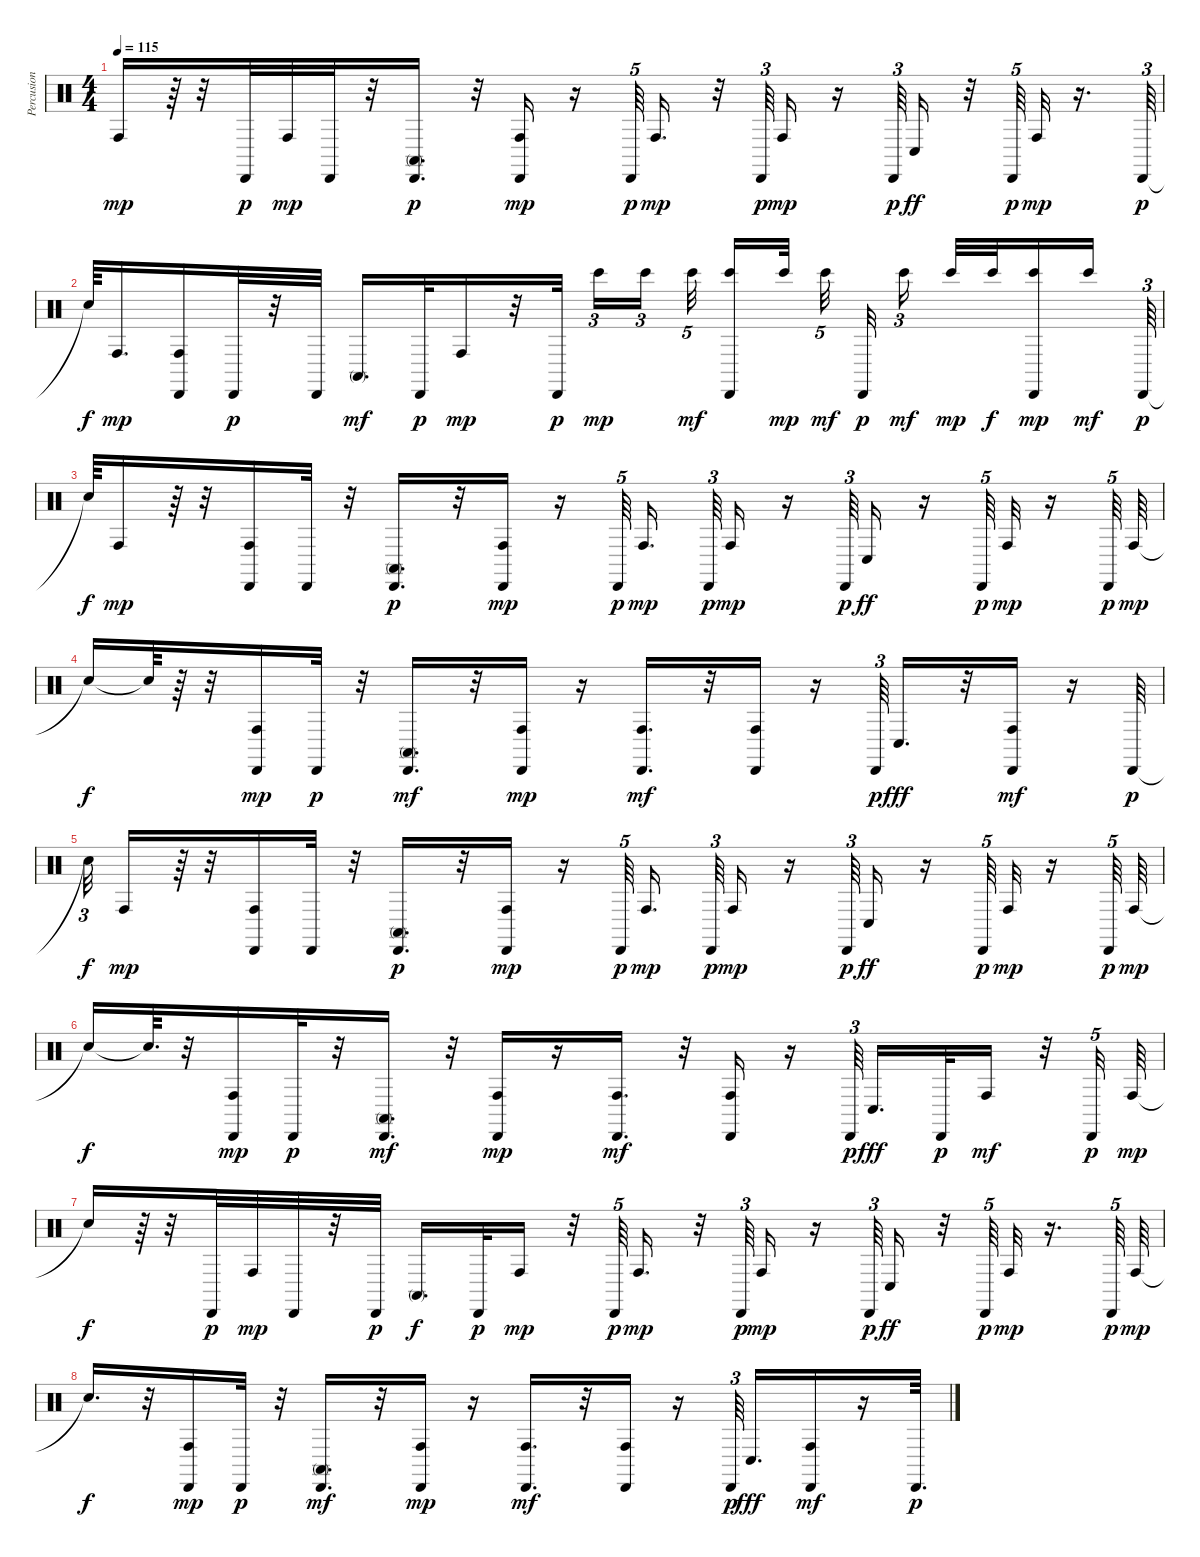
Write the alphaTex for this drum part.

\track ("Percusion" "Percusion") {instrument percussion}
\staff {score}
\articulation defaults
\ts (4 4)
\tempo 115
\clef neutral
\ks c "Conga high (hit)".16{dy mp}
r.64 r.32 "Cabasa (hit)".32{dy p} "Conga high (hit)".32{dy mp} "Cabasa (hit)".32 r.32 ("Cabasa (hit)" "Conga high (mute)").16{d dy p} r.32 ("Cabasa (hit)" "Conga high (hit)").16{dy mp} r.16 "Cabasa (hit)".64{tu (5 4) dy p} "Conga high (hit)".16{d dy mp} r.32 "Cabasa (hit)".64{tu (3 2) dy p} "Conga high (hit)".16{dy mp} r.16 "Cabasa (hit)".64{tu (3 2) dy p} "Conga low (hit)".16{dy ff} r.32 "Cabasa (hit)".64{tu (5 4) dy p} "Conga high (hit)".32{dy mp} r.16{d} "Cabasa (hit)".64{tu (3 2) dy p} |
"Snare (hit)"{t}.64{dy f} "Conga high (hit)".16{d dy mp} ("Cabasa (hit)" "Conga high (hit)").16 "Cabasa (hit)".32{dy p} r.32 "Cabasa (hit)".32 "Conga high (mute)".16{d dy mf} "Cabasa (hit)".32{dy p} "Conga high (hit)".16{dy mp} r.32 "Cabasa (hit)".32{dy p} "Bongo High (hit)".16{tu (3 2) dy mp} "Bongo High (hit)".16{tu (3 2)} "Bongo High (hit)".32{tu (5 4) dy mf beam splitsecondary} ("Cabasa (hit)" "Bongo High (hit)").16 "Bongo High (hit)".32{dy mp beam splitsecondary} "Bongo High (hit)".32{tu (5 4) dy mf} "Cabasa (hit)".32{dy p} "Bongo High (hit)".16{tu (3 2) dy mf beam splitsecondary} "Bongo High (hit)".32{dy mp} "Bongo High (hit)".32{dy f} ("Cabasa (hit)" "Bongo High (hit)").16{dy mp} "Bongo High (hit)".16{dy mf} "Cabasa (hit)".64{tu (3 2) dy p} |
"Snare (hit)"{t}.64{dy f} "Conga high (hit)".16{dy mp} r.64 r.32 ("Cabasa (hit)" "Conga high (hit)").16 "Cabasa (hit)".32 r.32 ("Cabasa (hit)" "Conga high (mute)").16{d dy p} r.32 ("Cabasa (hit)" "Conga high (hit)").16{dy mp} r.16 "Cabasa (hit)".64{tu (5 4) dy p beam splitsecondary} "Conga high (hit)".16{d dy mp beam splitsecondary} "Cabasa (hit)".64{tu (3 2) dy p} "Conga high (hit)".16{dy mp} r.16 "Cabasa (hit)".64{tu (3 2) dy p} "Conga low (hit)".16{dy ff} r.16 "Cabasa (hit)".64{tu (5 4) dy p} "Conga high (hit)".32{dy mp} r.16 "Cabasa (hit)".64{tu (5 4) dy p} "Conga high (hit)".64{dy mp} |
"Snare (hit)"{t}.16{dy f} "Snare (hit)"{t}.64 r.64 r.32 ("Cabasa (hit)" "Conga high (hit)").16{dy mp} "Cabasa (hit)".32{dy p} r.32 ("Cabasa (hit)" "Conga high (mute)").16{d dy mf} r.32 ("Cabasa (hit)" "Conga high (hit)").16{dy mp} r.16 ("Cabasa (hit)" "Conga high (hit)").16{d dy mf} r.32 ("Cabasa (hit)" "Conga high (hit)").16 r.16 "Cabasa (hit)".64{tu (3 2) dy p} "Conga low (hit)".16{d dy fff} r.32 ("Cabasa (hit)" "Conga high (hit)").16{dy mf} r.16 "Cabasa (hit)".64{dy p} |
"Snare (hit)"{t}.32{tu (3 2) dy f} "Conga high (hit)".16{dy mp} r.64 r.32 ("Cabasa (hit)" "Conga high (hit)").16 "Cabasa (hit)".32 r.32 ("Cabasa (hit)" "Conga high (mute)").16{d dy p} r.32 ("Cabasa (hit)" "Conga high (hit)").16{dy mp} r.16 "Cabasa (hit)".64{tu (5 4) dy p beam splitsecondary} "Conga high (hit)".16{d dy mp beam splitsecondary} "Cabasa (hit)".64{tu (3 2) dy p} "Conga high (hit)".16{dy mp} r.16 "Cabasa (hit)".64{tu (3 2) dy p} "Conga low (hit)".16{dy ff} r.16 "Cabasa (hit)".64{tu (5 4) dy p} "Conga high (hit)".32{dy mp} r.16 "Cabasa (hit)".64{tu (5 4) dy p} "Conga high (hit)".64{dy mp} |
"Snare (hit)"{t}.16{dy f} "Snare (hit)"{t}.64{d} r.32 ("Cabasa (hit)" "Conga high (hit)").16{dy mp} "Cabasa (hit)".32{dy p} r.32 ("Cabasa (hit)" "Conga high (mute)").16{d dy mf} r.32 ("Cabasa (hit)" "Conga high (hit)").16{dy mp} r.16 ("Cabasa (hit)" "Conga high (hit)").16{d dy mf} r.32 ("Cabasa (hit)" "Conga high (hit)").16 r.16 "Cabasa (hit)".64{tu (3 2) dy p} "Conga low (hit)".16{d dy fff} "Cabasa (hit)".32{dy p} "Conga high (hit)".16{dy mf} r.32 "Cabasa (hit)".32{tu (5 4) dy p} "Conga high (hit)".64{dy mp} |
"Snare (hit)"{t}.16{dy f} r.64 r.32 "Cabasa (hit)".32{dy p} "Conga high (hit)".32{dy mp} "Cabasa (hit)".32 r.32 "Cabasa (hit)".32{dy p} "Conga high (mute)".16{d dy f} "Cabasa (hit)".32{dy p} "Conga high (hit)".16{dy mp} r.32 "Cabasa (hit)".64{tu (5 4) dy p} "Conga high (hit)".16{d dy mp} r.32 "Cabasa (hit)".64{tu (3 2) dy p} "Conga high (hit)".16{dy mp} r.16 "Cabasa (hit)".64{tu (3 2) dy p} "Conga low (hit)".16{dy ff} r.32 "Cabasa (hit)".64{tu (5 4) dy p} "Conga high (hit)".32{dy mp} r.16{d} "Cabasa (hit)".64{tu (5 4) dy p} "Conga high (hit)".64{dy mp} |
"Snare (hit)"{t}.16{d dy f} r.32 ("Cabasa (hit)" "Conga high (hit)").16{dy mp} "Cabasa (hit)".32{dy p} r.32 ("Cabasa (hit)" "Conga high (mute)").16{d dy mf} r.32 ("Cabasa (hit)" "Conga high (hit)").16{dy mp} r.16 ("Cabasa (hit)" "Conga high (hit)").16{d dy mf} r.32 ("Cabasa (hit)" "Conga high (hit)").16 r.16 "Cabasa (hit)".64{tu (3 2) dy p beam splitsecondary} "Conga low (hit)".16{d dy fff} ("Cabasa (hit)" "Conga high (hit)").16{dy mf} r.16 "Cabasa (hit)".64{d dy p}
